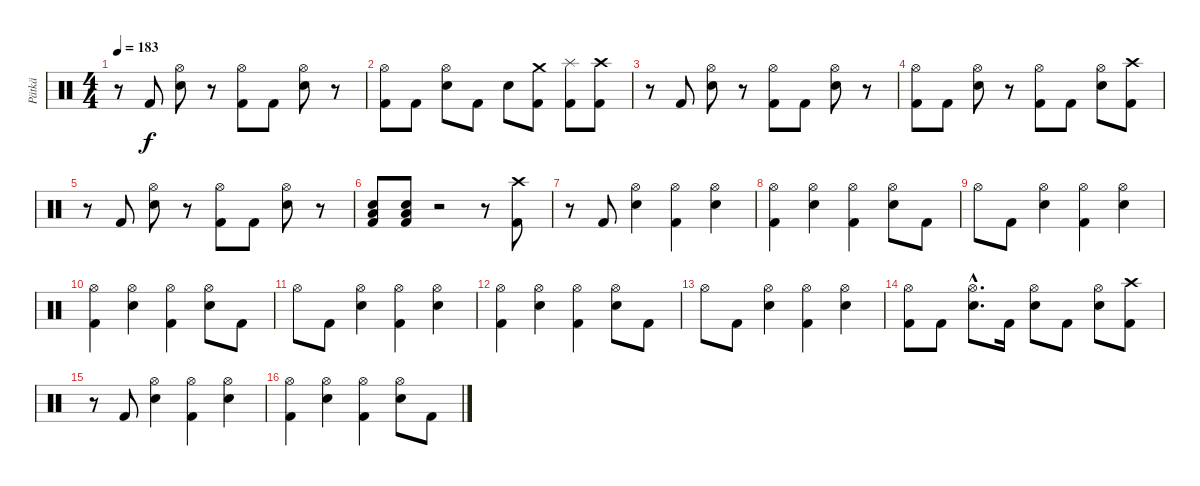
\track ("Pätkä" "Pätkä") {instrument percussion}
\staff {score}
\articulation defaults
\ts (4 4)
\tempo 183
\clef neutral
\ks c
r.8{dy f} "Kick (hit) 2".8 ("Hi-Hat (open)" "Electric Snare (hit)").8 r.8 ("Hi-Hat (open)" "Kick (hit) 2").8 "Kick (hit) 2".8 ("Hi-Hat (open)" "Electric Snare (hit)").8 r.8 |
("Hi-Hat (open)" "Kick (hit) 2").8 "Kick (hit) 2".8 ("Hi-Hat (open)" "Electric Snare (hit)").8 "Kick (hit) 2".8 "Electric Snare (hit)".8 ("Crash medium (hit)" "Kick (hit) 2").8 ("Splash (hit)" "Kick (hit) 2").8 ("Crash high (hit)" "Kick (hit) 2").8 |
r.8 "Kick (hit) 2".8 ("Hi-Hat (open)" "Electric Snare (hit)").8 r.8 ("Hi-Hat (open)" "Kick (hit) 2").8 "Kick (hit) 2".8 ("Hi-Hat (open)" "Electric Snare (hit)").8 r.8 |
("Hi-Hat (open)" "Kick (hit) 2").8 "Kick (hit) 2".8 ("Hi-Hat (open)" "Electric Snare (hit)").8 r.8 ("Hi-Hat (open)" "Kick (hit) 2").8 "Kick (hit) 2".8 ("Hi-Hat (open)" "Electric Snare (hit)").8 ("Crash high (hit)" "Kick (hit) 2").8 |
r.8 "Kick (hit) 2".8 ("Hi-Hat (open)" "Electric Snare (hit)").8 r.8 ("Hi-Hat (open)" "Kick (hit) 2").8 "Kick (hit) 2".8 ("Hi-Hat (open)" "Electric Snare (hit)").8 r.8 |
("Low Floor Tom (hit)" "Electric Snare (hit)" "Kick (hit) 2").8 ("Low Floor Tom (hit)" "Electric Snare (hit)" "Kick (hit) 2").8 r.2 r.8 ("Crash high (hit)" "Kick (hit) 2").8 |
r.8 "Kick (hit) 2".8 ("Hi-Hat (open)" "Electric Snare (hit)").4 ("Hi-Hat (open)" "Kick (hit) 2").4 ("Hi-Hat (open)" "Electric Snare (hit)").4 |
("Hi-Hat (open)" "Kick (hit) 2").4 ("Hi-Hat (open)" "Electric Snare (hit)").4 ("Hi-Hat (open)" "Kick (hit) 2").4 ("Hi-Hat (open)" "Electric Snare (hit)").8 "Kick (hit) 2".8 |
"Hi-Hat (open)".8 "Kick (hit) 2".8 ("Hi-Hat (open)" "Electric Snare (hit)").4 ("Hi-Hat (open)" "Kick (hit) 2").4 ("Hi-Hat (open)" "Electric Snare (hit)").4 |
("Hi-Hat (open)" "Kick (hit) 2").4 ("Hi-Hat (open)" "Electric Snare (hit)").4 ("Hi-Hat (open)" "Kick (hit) 2").4 ("Hi-Hat (open)" "Electric Snare (hit)").8 "Kick (hit) 2".8 |
"Hi-Hat (open)".8 "Kick (hit) 2".8 ("Hi-Hat (open)" "Electric Snare (hit)").4 ("Hi-Hat (open)" "Kick (hit) 2").4 ("Hi-Hat (open)" "Electric Snare (hit)").4 |
("Hi-Hat (open)" "Kick (hit) 2").4 ("Hi-Hat (open)" "Electric Snare (hit)").4 ("Hi-Hat (open)" "Kick (hit) 2").4 ("Hi-Hat (open)" "Electric Snare (hit)").8 "Kick (hit) 2".8 |
"Hi-Hat (open)".8 "Kick (hit) 2".8 ("Hi-Hat (open)" "Electric Snare (hit)").4 ("Hi-Hat (open)" "Kick (hit) 2").4 ("Hi-Hat (open)" "Electric Snare (hit)").4 |
("Hi-Hat (open)" "Kick (hit) 2").8 "Kick (hit) 2".8 ("Hi-Hat (open)"{hac} "Electric Snare (hit)"{hac}).8{d} "Kick (hit) 2".16 ("Hi-Hat (open)" "Electric Snare (hit)").8 "Kick (hit) 2".8 ("Hi-Hat (open)" "Electric Snare (hit)").8 ("Crash high (hit)" "Kick (hit) 2").8 |
r.8 "Kick (hit) 2".8 ("Hi-Hat (open)" "Electric Snare (hit)").4 ("Hi-Hat (open)" "Kick (hit) 2").4 ("Hi-Hat (open)" "Electric Snare (hit)").4 |
("Hi-Hat (open)" "Kick (hit) 2").4 ("Hi-Hat (open)" "Electric Snare (hit)").4 ("Hi-Hat (open)" "Kick (hit) 2").4 ("Hi-Hat (open)" "Electric Snare (hit)").8 "Kick (hit) 2".8
